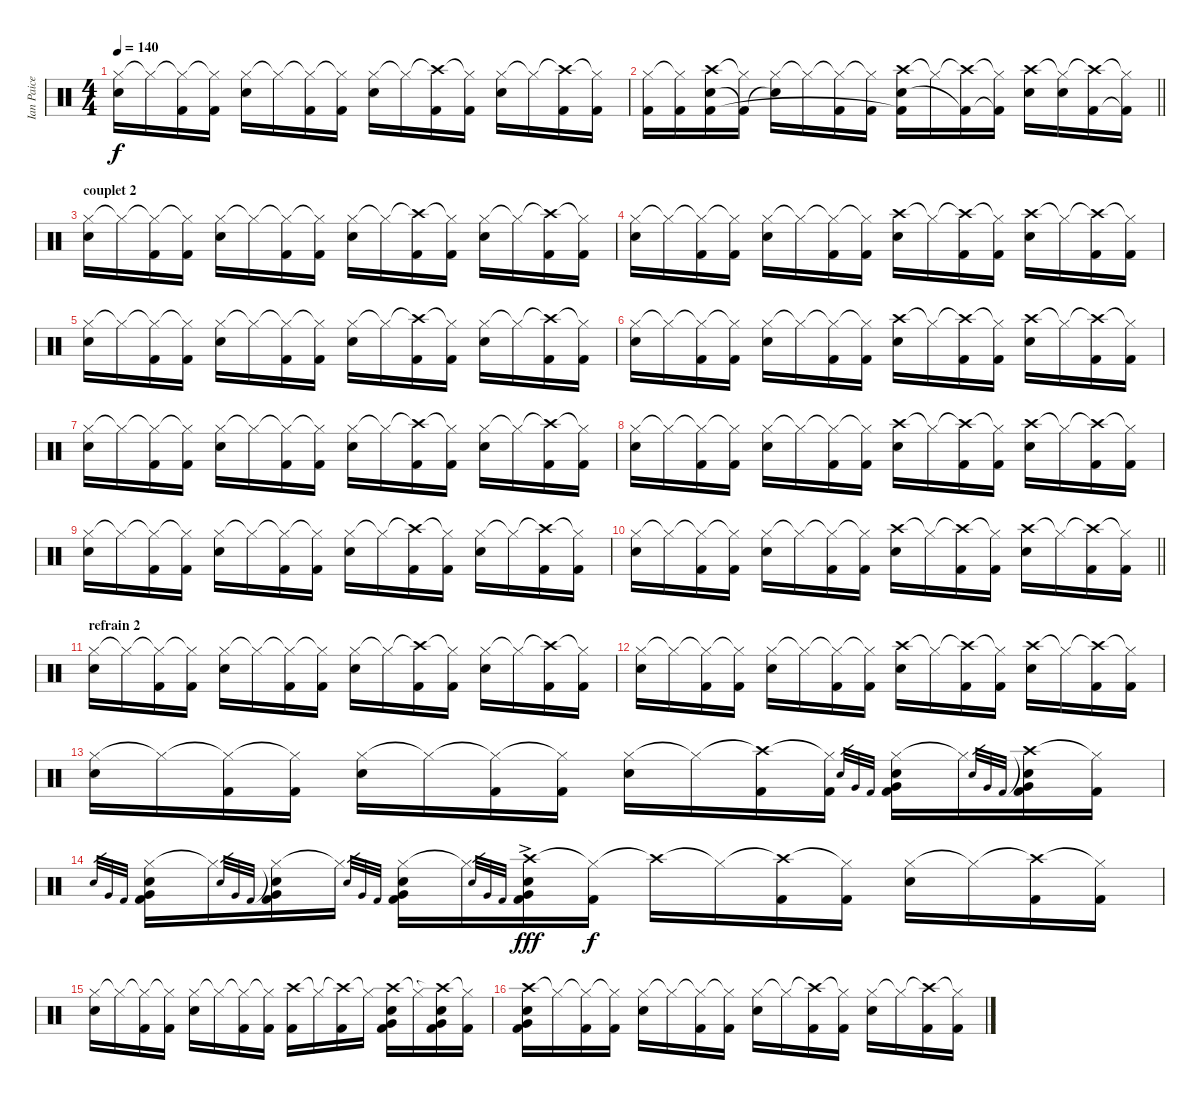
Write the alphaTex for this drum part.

\track ("Ian Paice" "Ian Paice") {instrument percussion}
\staff {score}
\articulation defaults
\ts (4 4)
\tempo 140
\clef neutral
\ks c
("Hi-Hat (closed)" "Snare (hit) 2").16{dy f} "Hi-Hat (closed)"{t}.16 ("Hi-Hat (closed)"{t} "Kick (hit) 2").16 ("Hi-Hat (closed)"{t} "Kick (hit) 2").16 ("Hi-Hat (closed)" "Snare (hit) 2").16 "Hi-Hat (closed)"{t}.16 ("Hi-Hat (closed)"{t} "Kick (hit) 2").16 ("Hi-Hat (closed)"{t} "Kick (hit) 2").16 ("Hi-Hat (closed)" "Snare (hit) 2").16 "Hi-Hat (closed)"{t}.16 ("Crash high (hit)"{t} "Kick (hit) 2").16 ("Hi-Hat (closed)"{t} "Kick (hit) 2").16 ("Hi-Hat (closed)" "Snare (hit) 2").16 "Hi-Hat (closed)"{t}.16 ("Crash high (hit)"{t} "Kick (hit) 2").16 ("Hi-Hat (closed)"{t} "Kick (hit) 2").16 |
\barLineRight lightlight
("Hi-Hat (closed)" "Kick (hit) 2").16 ("Hi-Hat (closed)"{t} "Kick (hit) 2").16 ("Crash high (hit)" "Snare (hit) 2" "Kick (hit) 2").16 ("Hi-Hat (closed)"{t} "Kick (hit) 2"{t}).16 ("Hi-Hat (closed)" "Snare (hit) 2"{t}).16 "Hi-Hat (closed)"{t}.16 ("Hi-Hat (closed)"{t} "Kick (hit) 2").16 ("Hi-Hat (closed)"{t} "Kick (hit) 2").16 ("Crash high (hit)" "Snare (hit) 2" "Kick (hit) 2"{t}).16 "Hi-Hat (closed)"{t}.16 ("Crash high (hit)"{t} "Kick (hit) 2"{t}).16 ("Hi-Hat (closed)"{t} "Kick (hit) 2"{t}).16 ("Crash high (hit)" "Snare (hit) 2").16 ("Hi-Hat (closed)"{t} "Snare (hit) 2").16 ("Crash high (hit)"{t} "Kick (hit) 2").16 ("Hi-Hat (closed)"{t} "Kick (hit) 2"{t}).16 |
\section ("" "couplet 2")
("Hi-Hat (closed)" "Snare (hit) 2").16 "Hi-Hat (closed)"{t}.16 ("Hi-Hat (closed)"{t} "Kick (hit) 2").16 ("Hi-Hat (closed)"{t} "Kick (hit) 2").16 ("Hi-Hat (closed)" "Snare (hit) 2").16 "Hi-Hat (closed)"{t}.16 ("Hi-Hat (closed)"{t} "Kick (hit) 2").16 ("Hi-Hat (closed)"{t} "Kick (hit) 2").16 ("Hi-Hat (closed)" "Snare (hit) 2").16 "Hi-Hat (closed)"{t}.16 ("Crash high (hit)"{t} "Kick (hit) 2").16 ("Hi-Hat (closed)"{t} "Kick (hit) 2").16 ("Hi-Hat (closed)" "Snare (hit) 2").16 "Hi-Hat (closed)"{t}.16 ("Crash high (hit)"{t} "Kick (hit) 2").16 ("Hi-Hat (closed)"{t} "Kick (hit) 2").16 |
("Hi-Hat (closed)" "Snare (hit) 2").16 "Hi-Hat (closed)"{t}.16 ("Hi-Hat (closed)"{t} "Kick (hit) 2").16 ("Hi-Hat (closed)"{t} "Kick (hit) 2").16 ("Hi-Hat (closed)" "Snare (hit) 2").16 "Hi-Hat (closed)"{t}.16 ("Hi-Hat (closed)"{t} "Kick (hit) 2").16 ("Hi-Hat (closed)"{t} "Kick (hit) 2").16 ("Crash high (hit)" "Snare (hit) 2").16 "Hi-Hat (closed)"{t}.16 ("Crash high (hit)"{t} "Kick (hit) 2").16 ("Hi-Hat (closed)"{t} "Kick (hit) 2").16 ("Crash high (hit)" "Snare (hit) 2").16 "Hi-Hat (closed)"{t}.16 ("Crash high (hit)"{t} "Kick (hit) 2").16 ("Hi-Hat (closed)"{t} "Kick (hit) 2").16 |
("Hi-Hat (closed)" "Snare (hit) 2").16 "Hi-Hat (closed)"{t}.16 ("Hi-Hat (closed)"{t} "Kick (hit) 2").16 ("Hi-Hat (closed)"{t} "Kick (hit) 2").16 ("Hi-Hat (closed)" "Snare (hit) 2").16 "Hi-Hat (closed)"{t}.16 ("Hi-Hat (closed)"{t} "Kick (hit) 2").16 ("Hi-Hat (closed)"{t} "Kick (hit) 2").16 ("Hi-Hat (closed)" "Snare (hit) 2").16 "Hi-Hat (closed)"{t}.16 ("Crash high (hit)"{t} "Kick (hit) 2").16 ("Hi-Hat (closed)"{t} "Kick (hit) 2").16 ("Hi-Hat (closed)" "Snare (hit) 2").16 "Hi-Hat (closed)"{t}.16 ("Crash high (hit)"{t} "Kick (hit) 2").16 ("Hi-Hat (closed)"{t} "Kick (hit) 2").16 |
("Hi-Hat (closed)" "Snare (hit) 2").16 "Hi-Hat (closed)"{t}.16 ("Hi-Hat (closed)"{t} "Kick (hit) 2").16 ("Hi-Hat (closed)"{t} "Kick (hit) 2").16 ("Hi-Hat (closed)" "Snare (hit) 2").16 "Hi-Hat (closed)"{t}.16 ("Hi-Hat (closed)"{t} "Kick (hit) 2").16 ("Hi-Hat (closed)"{t} "Kick (hit) 2").16 ("Crash high (hit)" "Snare (hit) 2").16 "Hi-Hat (closed)"{t}.16 ("Crash high (hit)"{t} "Kick (hit) 2").16 ("Hi-Hat (closed)"{t} "Kick (hit) 2").16 ("Crash high (hit)" "Snare (hit) 2").16 "Hi-Hat (closed)"{t}.16 ("Crash high (hit)"{t} "Kick (hit) 2").16 ("Hi-Hat (closed)"{t} "Kick (hit) 2").16 |
("Hi-Hat (closed)" "Snare (hit) 2").16 "Hi-Hat (closed)"{t}.16 ("Hi-Hat (closed)"{t} "Kick (hit) 2").16 ("Hi-Hat (closed)"{t} "Kick (hit) 2").16 ("Hi-Hat (closed)" "Snare (hit) 2").16 "Hi-Hat (closed)"{t}.16 ("Hi-Hat (closed)"{t} "Kick (hit) 2").16 ("Hi-Hat (closed)"{t} "Kick (hit) 2").16 ("Hi-Hat (closed)" "Snare (hit) 2").16 "Hi-Hat (closed)"{t}.16 ("Crash high (hit)"{t} "Kick (hit) 2").16 ("Hi-Hat (closed)"{t} "Kick (hit) 2").16 ("Hi-Hat (closed)" "Snare (hit) 2").16 "Hi-Hat (closed)"{t}.16 ("Crash high (hit)"{t} "Kick (hit) 2").16 ("Hi-Hat (closed)"{t} "Kick (hit) 2").16 |
("Hi-Hat (closed)" "Snare (hit) 2").16 "Hi-Hat (closed)"{t}.16 ("Hi-Hat (closed)"{t} "Kick (hit) 2").16 ("Hi-Hat (closed)"{t} "Kick (hit) 2").16 ("Hi-Hat (closed)" "Snare (hit) 2").16 "Hi-Hat (closed)"{t}.16 ("Hi-Hat (closed)"{t} "Kick (hit) 2").16 ("Hi-Hat (closed)"{t} "Kick (hit) 2").16 ("Crash high (hit)" "Snare (hit) 2").16 "Hi-Hat (closed)"{t}.16 ("Crash high (hit)"{t} "Kick (hit) 2").16 ("Hi-Hat (closed)"{t} "Kick (hit) 2").16 ("Crash high (hit)" "Snare (hit) 2").16 "Hi-Hat (closed)"{t}.16 ("Crash high (hit)"{t} "Kick (hit) 2").16 ("Hi-Hat (closed)"{t} "Kick (hit) 2").16 |
("Hi-Hat (closed)" "Snare (hit) 2").16 "Hi-Hat (closed)"{t}.16 ("Hi-Hat (closed)"{t} "Kick (hit) 2").16 ("Hi-Hat (closed)"{t} "Kick (hit) 2").16 ("Hi-Hat (closed)" "Snare (hit) 2").16 "Hi-Hat (closed)"{t}.16 ("Hi-Hat (closed)"{t} "Kick (hit) 2").16 ("Hi-Hat (closed)"{t} "Kick (hit) 2").16 ("Hi-Hat (closed)" "Snare (hit) 2").16 "Hi-Hat (closed)"{t}.16 ("Crash high (hit)"{t} "Kick (hit) 2").16 ("Hi-Hat (closed)"{t} "Kick (hit) 2").16 ("Hi-Hat (closed)" "Snare (hit) 2").16 "Hi-Hat (closed)"{t}.16 ("Crash high (hit)"{t} "Kick (hit) 2").16 ("Hi-Hat (closed)"{t} "Kick (hit) 2").16 |
\barLineRight lightlight
("Hi-Hat (closed)" "Snare (hit) 2").16 "Hi-Hat (closed)"{t}.16 ("Hi-Hat (closed)"{t} "Kick (hit) 2").16 ("Hi-Hat (closed)"{t} "Kick (hit) 2").16 ("Hi-Hat (closed)" "Snare (hit) 2").16 "Hi-Hat (closed)"{t}.16 ("Hi-Hat (closed)"{t} "Kick (hit) 2").16 ("Hi-Hat (closed)"{t} "Kick (hit) 2").16 ("Crash high (hit)" "Snare (hit) 2").16 "Hi-Hat (closed)"{t}.16 ("Crash high (hit)"{t} "Kick (hit) 2").16 ("Hi-Hat (closed)"{t} "Kick (hit) 2").16 ("Crash high (hit)" "Snare (hit) 2").16 "Hi-Hat (closed)"{t}.16 ("Crash high (hit)"{t} "Kick (hit) 2").16 ("Hi-Hat (closed)"{t} "Kick (hit) 2").16 |
\section ("" "refrain 2")
("Hi-Hat (closed)" "Snare (hit) 2").16 "Hi-Hat (closed)"{t}.16 ("Hi-Hat (closed)"{t} "Kick (hit) 2").16 ("Hi-Hat (closed)"{t} "Kick (hit) 2").16 ("Hi-Hat (closed)" "Snare (hit) 2").16 "Hi-Hat (closed)"{t}.16 ("Hi-Hat (closed)"{t} "Kick (hit) 2").16 ("Hi-Hat (closed)"{t} "Kick (hit) 2").16 ("Hi-Hat (closed)" "Snare (hit) 2").16 "Hi-Hat (closed)"{t}.16 ("Crash high (hit)"{t} "Kick (hit) 2").16 ("Hi-Hat (closed)"{t} "Kick (hit) 2").16 ("Hi-Hat (closed)" "Snare (hit) 2").16 "Hi-Hat (closed)"{t}.16 ("Crash high (hit)"{t} "Kick (hit) 2").16 ("Hi-Hat (closed)"{t} "Kick (hit) 2").16 |
("Hi-Hat (closed)" "Snare (hit) 2").16 "Hi-Hat (closed)"{t}.16 ("Hi-Hat (closed)"{t} "Kick (hit) 2").16 ("Hi-Hat (closed)"{t} "Kick (hit) 2").16 ("Hi-Hat (closed)" "Snare (hit) 2").16 "Hi-Hat (closed)"{t}.16 ("Hi-Hat (closed)"{t} "Kick (hit) 2").16 ("Hi-Hat (closed)"{t} "Kick (hit) 2").16 ("Crash high (hit)" "Snare (hit) 2").16 "Hi-Hat (closed)"{t}.16 ("Crash high (hit)"{t} "Kick (hit) 2").16 ("Hi-Hat (closed)"{t} "Kick (hit) 2").16 ("Crash high (hit)" "Snare (hit) 2").16 "Hi-Hat (closed)"{t}.16 ("Crash high (hit)"{t} "Kick (hit) 2").16 ("Hi-Hat (closed)"{t} "Kick (hit) 2").16 |
("Hi-Hat (closed)" "Snare (hit) 2").16 "Hi-Hat (closed)"{t}.16 ("Hi-Hat (closed)"{t} "Kick (hit) 2").16 ("Hi-Hat (closed)"{t} "Kick (hit) 2").16 ("Hi-Hat (closed)" "Snare (hit) 2").16 "Hi-Hat (closed)"{t}.16 ("Hi-Hat (closed)"{t} "Kick (hit) 2").16 ("Hi-Hat (closed)"{t} "Kick (hit) 2").16 ("Hi-Hat (closed)" "Snare (hit) 2").16 "Hi-Hat (closed)"{t}.16 ("Crash high (hit)"{t} "Kick (hit) 2").16 ("Hi-Hat (closed)"{t} "Kick (hit) 2").16 "Snare (hit) 2".32{gr} "Very Low Tom (hit)".32{gr} "Kick (hit) 2".32{gr} ("Hi-Hat (closed)" "Snare (hit) 2" "Very Low Tom (hit)" "Kick (hit) 2").16 "Hi-Hat (closed)"{t}.16 "Snare (hit) 2".32{gr} "Very Low Tom (hit)".32{gr} "Kick (hit) 2".32{gr} ("Crash high (hit)"{t} "Snare (hit) 2" "Very Low Tom (hit)" "Kick (hit) 2").16 ("Hi-Hat (closed)"{t} "Kick (hit) 2").16 |
"Snare (hit) 2".32{gr} "Very Low Tom (hit)".32{gr} "Kick (hit) 2".32{gr} ("Hi-Hat (closed)" "Snare (hit) 2" "Very Low Tom (hit)" "Kick (hit) 2").16 "Hi-Hat (closed)"{t}.16 "Snare (hit) 2".32{gr} "Very Low Tom (hit)".32{gr} "Kick (hit) 2".32{gr} ("Hi-Hat (closed)"{t} "Snare (hit) 2" "Very Low Tom (hit)" "Kick (hit) 2").16 "Hi-Hat (closed)"{t}.16 "Snare (hit) 2".32{gr} "Very Low Tom (hit)".32{gr} "Kick (hit) 2".32{gr} ("Hi-Hat (closed)" "Snare (hit) 2" "Very Low Tom (hit)" "Kick (hit) 2").16 "Hi-Hat (closed)"{t}.16 "Snare (hit) 2".32{gr} "Very Low Tom (hit)".32{gr} "Kick (hit) 2".32{gr} ("Crash high (hit)"{ac} "Snare (hit) 2" "Very Low Tom (hit)" "Kick (hit) 2").16{dy fff} ("Hi-Hat (closed)"{t} "Kick (hit) 2").16{dy f} "Crash high (hit)"{t}.16 "Hi-Hat (closed)"{t}.16 ("Crash high (hit)"{t} "Kick (hit) 2").16 ("Hi-Hat (closed)"{t} "Kick (hit) 2").16 ("Hi-Hat (closed)" "Snare (hit) 2").16 "Hi-Hat (closed)"{t}.16 ("Crash high (hit)"{t} "Kick (hit) 2").16 ("Hi-Hat (closed)"{t} "Kick (hit) 2").16 |
("Hi-Hat (closed)" "Snare (hit) 2").16 "Hi-Hat (closed)"{t}.16 ("Hi-Hat (closed)"{t} "Kick (hit) 2").16 ("Hi-Hat (closed)"{t} "Kick (hit) 2").16 ("Hi-Hat (closed)" "Snare (hit) 2").16 "Hi-Hat (closed)"{t}.16 ("Hi-Hat (closed)"{t} "Kick (hit) 2").16 ("Hi-Hat (closed)"{t} "Kick (hit) 2").16 ("Crash high (hit)" "Kick (hit) 2").16 "Hi-Hat (closed)"{t}.16 ("Crash high (hit)"{t} "Kick (hit) 2").16 "Hi-Hat (closed)"{t}.16 ("Crash high (hit)" "Snare (hit) 2" "Very Low Tom (hit)" "Kick (hit) 2").16 "Hi-Hat (closed)"{t}.16 ("Crash high (hit)"{t} "Snare (hit) 2" "Very Low Tom (hit)" "Kick (hit) 2").16 ("Hi-Hat (closed)"{t} "Kick (hit) 2").16 |
("Crash high (hit)" "Snare (hit) 2" "Very Low Tom (hit)" "Kick (hit) 2").16 "Hi-Hat (closed)"{t}.16 ("Hi-Hat (closed)"{t} "Kick (hit) 2").16 ("Hi-Hat (closed)"{t} "Kick (hit) 2").16 ("Hi-Hat (closed)" "Snare (hit) 2").16 "Hi-Hat (closed)"{t}.16 ("Hi-Hat (closed)"{t} "Kick (hit) 2").16 ("Hi-Hat (closed)"{t} "Kick (hit) 2").16 ("Hi-Hat (closed)" "Snare (hit) 2").16 "Hi-Hat (closed)"{t}.16 ("Crash high (hit)"{t} "Kick (hit) 2").16 ("Hi-Hat (closed)"{t} "Kick (hit) 2").16 ("Hi-Hat (closed)" "Snare (hit) 2").16 "Hi-Hat (closed)"{t}.16 ("Crash high (hit)"{t} "Kick (hit) 2").16 ("Hi-Hat (closed)"{t} "Kick (hit) 2").16
